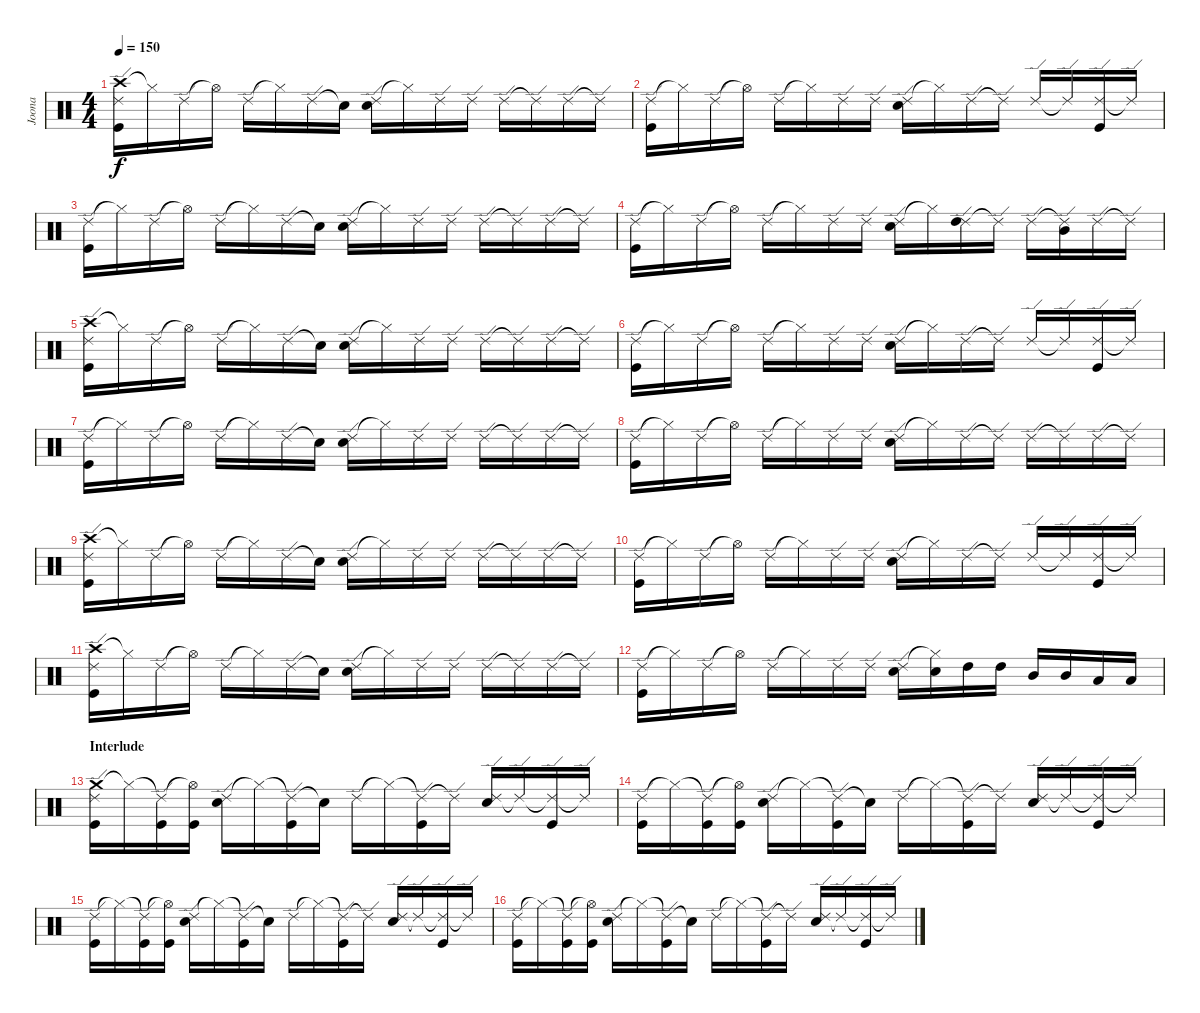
\track ("Joona" "Joona") {instrument percussion}
\staff {score}
\articulation defaults
\ts (4 4)
\tempo 150
\clef neutral
\ks c
("Crash high (hit)" "Ride (edge) 2" "Kick (hit)").16{dy f} "Hi-Hat (closed)"{t}.16 "Ride (edge) 2".16 "Hi-Hat (open)"{t}.16 "Ride (edge) 2".16 "Hi-Hat (closed)"{t}.16 "Ride (edge) 2".16 "Snare (hit)"{t}.16 ("Ride (edge) 2" "Snare (hit) 2").16 "Hi-Hat (closed)"{t}.16 "Ride (edge) 2".16 "Ride (edge) 2".16 "Ride (edge) 2".16 "Ride (edge) 2"{t}.16 "Ride (edge) 2".16 "Ride (edge) 2"{t}.16 |
("Ride (edge) 2" "Kick (hit)").16 "Hi-Hat (closed)"{t}.16 "Ride (edge) 2".16 "Hi-Hat (open)"{t}.16 "Ride (edge) 2".16 "Hi-Hat (closed)"{t}.16 "Ride (edge) 2".16 "Ride (edge) 2".16 ("Ride (edge) 2" "Snare (hit) 2").16 "Hi-Hat (closed)"{t}.16 "Ride (edge) 2".16 "Ride (edge) 2"{t}.16 "Ride (edge) 2".16 "Ride (edge) 2"{t}.16 ("Ride (edge) 2" "Kick (hit)").16 "Ride (edge) 2"{t}.16 |
("Ride (edge) 2" "Kick (hit)").16 "Hi-Hat (closed)"{t}.16 "Ride (edge) 2".16 "Hi-Hat (open)"{t}.16 "Ride (edge) 2".16 "Hi-Hat (closed)"{t}.16 "Ride (edge) 2".16 "Snare (hit)"{t}.16 ("Ride (edge) 2" "Snare (hit) 2").16 "Hi-Hat (closed)"{t}.16 "Ride (edge) 2".16 "Ride (edge) 2".16 "Ride (edge) 2".16 "Ride (edge) 2"{t}.16 "Ride (edge) 2".16 "Ride (edge) 2"{t}.16 |
("Ride (edge) 2" "Kick (hit)").16 "Hi-Hat (closed)"{t}.16 "Ride (edge) 2".16 "Hi-Hat (open)"{t}.16 "Ride (edge) 2".16 "Hi-Hat (closed)"{t}.16 "Ride (edge) 2".16 "Ride (edge) 2".16 ("Ride (edge) 2" "Snare (hit) 2").16 "Hi-Hat (closed)"{t}.16 ("Ride (edge) 2" "High Tom (hit)").16 "Ride (edge) 2"{t}.16 "Ride (edge) 2".16 ("Ride (edge) 2"{t} "Mid Tom (hit)").16 "Ride (edge) 2".16 "Ride (edge) 2"{t}.16 |
("Crash high (hit)" "Ride (edge) 2" "Kick (hit)").16 "Hi-Hat (closed)"{t}.16 "Ride (edge) 2".16 "Hi-Hat (open)"{t}.16 "Ride (edge) 2".16 "Hi-Hat (closed)"{t}.16 "Ride (edge) 2".16 "Snare (hit)"{t}.16 ("Ride (edge) 2" "Snare (hit) 2").16 "Hi-Hat (closed)"{t}.16 "Ride (edge) 2".16 "Ride (edge) 2".16 "Ride (edge) 2".16 "Ride (edge) 2"{t}.16 "Ride (edge) 2".16 "Ride (edge) 2"{t}.16 |
("Ride (edge) 2" "Kick (hit)").16 "Hi-Hat (closed)"{t}.16 "Ride (edge) 2".16 "Hi-Hat (open)"{t}.16 "Ride (edge) 2".16 "Hi-Hat (closed)"{t}.16 "Ride (edge) 2".16 "Ride (edge) 2".16 ("Ride (edge) 2" "Snare (hit) 2").16 "Hi-Hat (closed)"{t}.16 "Ride (edge) 2".16 "Ride (edge) 2"{t}.16 "Ride (edge) 2".16 "Ride (edge) 2"{t}.16 ("Ride (edge) 2" "Kick (hit)").16 "Ride (edge) 2"{t}.16 |
("Ride (edge) 2" "Kick (hit)").16 "Hi-Hat (closed)"{t}.16 "Ride (edge) 2".16 "Hi-Hat (open)"{t}.16 "Ride (edge) 2".16 "Hi-Hat (closed)"{t}.16 "Ride (edge) 2".16 "Snare (hit)"{t}.16 ("Ride (edge) 2" "Snare (hit) 2").16 "Hi-Hat (closed)"{t}.16 "Ride (edge) 2".16 "Ride (edge) 2".16 "Ride (edge) 2".16 "Ride (edge) 2"{t}.16 "Ride (edge) 2".16 "Ride (edge) 2"{t}.16 |
("Ride (edge) 2" "Kick (hit)").16 "Hi-Hat (closed)"{t}.16 "Ride (edge) 2".16 "Hi-Hat (open)"{t}.16 "Ride (edge) 2".16 "Hi-Hat (closed)"{t}.16 "Ride (edge) 2".16 "Ride (edge) 2".16 ("Ride (edge) 2" "Snare (hit) 2").16 "Hi-Hat (closed)"{t}.16 "Ride (edge) 2".16 "Ride (edge) 2"{t}.16 "Ride (edge) 2".16 "Ride (edge) 2"{t}.16 "Ride (edge) 2".16 "Ride (edge) 2"{t}.16 |
("Crash high (hit)" "Ride (edge) 2" "Kick (hit)").16 "Hi-Hat (closed)"{t}.16 "Ride (edge) 2".16 "Hi-Hat (open)"{t}.16 "Ride (edge) 2".16 "Hi-Hat (closed)"{t}.16 "Ride (edge) 2".16 "Snare (hit)"{t}.16 ("Ride (edge) 2" "Snare (hit) 2").16 "Hi-Hat (closed)"{t}.16 "Ride (edge) 2".16 "Ride (edge) 2".16 "Ride (edge) 2".16 "Ride (edge) 2"{t}.16 "Ride (edge) 2".16 "Ride (edge) 2"{t}.16 |
("Ride (edge) 2" "Kick (hit)").16 "Hi-Hat (closed)"{t}.16 "Ride (edge) 2".16 "Hi-Hat (open)"{t}.16 "Ride (edge) 2".16 "Hi-Hat (closed)"{t}.16 "Ride (edge) 2".16 "Ride (edge) 2".16 ("Ride (edge) 2" "Snare (hit) 2").16 "Hi-Hat (closed)"{t}.16 "Ride (edge) 2".16 "Ride (edge) 2"{t}.16 "Ride (edge) 2".16 "Ride (edge) 2"{t}.16 ("Ride (edge) 2" "Kick (hit)").16 "Ride (edge) 2"{t}.16 |
("Crash high (hit)" "Ride (edge) 2" "Kick (hit)").16 "Hi-Hat (closed)"{t}.16 "Ride (edge) 2".16 "Hi-Hat (open)"{t}.16 "Ride (edge) 2".16 "Hi-Hat (closed)"{t}.16 "Ride (edge) 2".16 "Snare (hit)"{t}.16 ("Ride (edge) 2" "Snare (hit) 2").16 "Hi-Hat (closed)"{t}.16 "Ride (edge) 2".16 "Ride (edge) 2".16 "Ride (edge) 2".16 "Ride (edge) 2"{t}.16 "Ride (edge) 2".16 "Ride (edge) 2"{t}.16 |
("Ride (edge) 2" "Kick (hit)").16 "Hi-Hat (closed)"{t}.16 "Ride (edge) 2".16 "Hi-Hat (open)"{t}.16 "Ride (edge) 2".16 "Hi-Hat (closed)"{t}.16 "Ride (edge) 2".16 "Ride (edge) 2".16 ("Ride (edge) 2" "Snare (hit) 2").16 ("Hi-Hat (closed)"{t} "Snare (hit) 2").16 "High Tom (hit)".16 "High Tom (hit)".16 "Mid Tom (hit)".16 "Mid Tom (hit)".16 "Low Tom (hit)".16 "Low Tom (hit)".16 |
\section ("" "Interlude")
("Crash medium (hit)" "Ride (edge) 2" "Kick (hit)").16 "Hi-Hat (closed)"{t}.16 ("Ride (edge) 2"{t} "Kick (hit)").16 ("Hi-Hat (open)"{t} "Kick (hit)").16 ("Ride (edge) 2" "Snare (hit) 2").16 "Hi-Hat (closed)"{t}.16 ("Ride (edge) 2"{t} "Kick (hit)").16 "Snare (hit)"{t}.16 "Ride (edge) 2".16 "Hi-Hat (closed)"{t}.16 ("Ride (edge) 2"{t} "Kick (hit)").16 "Ride (edge) 2"{t}.16 ("Ride (edge) 2" "Snare (hit) 2").16 "Ride (edge) 2"{t}.16 ("Ride (edge) 2"{t} "Kick (hit)").16 "Ride (edge) 2"{t}.16 |
("Ride (edge) 2" "Kick (hit)").16 "Hi-Hat (closed)"{t}.16 ("Ride (edge) 2"{t} "Kick (hit)").16 ("Hi-Hat (open)"{t} "Kick (hit)").16 ("Ride (edge) 2" "Snare (hit) 2").16 "Hi-Hat (closed)"{t}.16 ("Ride (edge) 2"{t} "Kick (hit)").16 "Snare (hit)"{t}.16 "Ride (edge) 2".16 "Hi-Hat (closed)"{t}.16 ("Ride (edge) 2"{t} "Kick (hit)").16 "Ride (edge) 2"{t}.16 ("Ride (edge) 2" "Snare (hit) 2").16 "Ride (edge) 2"{t}.16 ("Ride (edge) 2"{t} "Kick (hit)").16 "Ride (edge) 2"{t}.16 |
("Ride (edge) 2" "Kick (hit)").16 "Hi-Hat (closed)"{t}.16 ("Ride (edge) 2"{t} "Kick (hit)").16 ("Hi-Hat (open)"{t} "Kick (hit)").16 ("Ride (edge) 2" "Snare (hit) 2").16 "Hi-Hat (closed)"{t}.16 ("Ride (edge) 2"{t} "Kick (hit)").16 "Snare (hit)"{t}.16 "Ride (edge) 2".16 "Hi-Hat (closed)"{t}.16 ("Ride (edge) 2"{t} "Kick (hit)").16 "Ride (edge) 2"{t}.16 ("Ride (edge) 2" "Snare (hit) 2").16 "Ride (edge) 2"{t}.16 ("Ride (edge) 2"{t} "Kick (hit)").16 "Ride (edge) 2"{t}.16 |
("Ride (edge) 2" "Kick (hit)").16 "Hi-Hat (closed)"{t}.16 ("Ride (edge) 2"{t} "Kick (hit)").16 ("Hi-Hat (open)"{t} "Kick (hit)").16 ("Ride (edge) 2" "Snare (hit) 2").16 "Hi-Hat (closed)"{t}.16 ("Ride (edge) 2"{t} "Kick (hit)").16 "Snare (hit)"{t}.16 "Ride (edge) 2".16 "Hi-Hat (closed)"{t}.16 ("Ride (edge) 2"{t} "Kick (hit)").16 "Ride (edge) 2"{t}.16 ("Ride (edge) 2" "Snare (hit) 2").16 "Ride (edge) 2"{t}.16 ("Ride (edge) 2"{t} "Kick (hit)").16 "Ride (edge) 2"{t}.16
